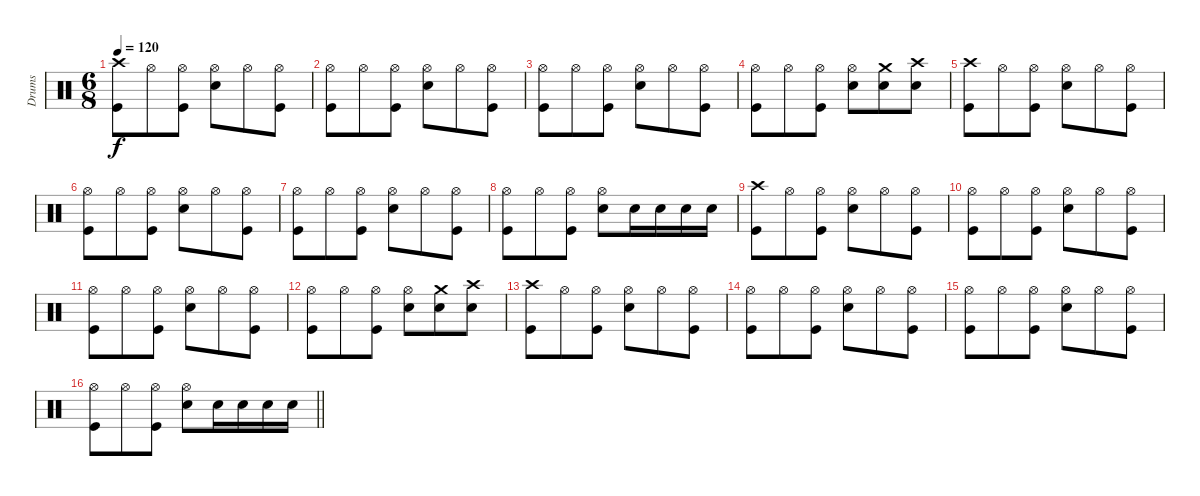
\track ("Drums" "Drums") {instrument percussion}
\staff {score}
\articulation defaults
\ts (6 8)
\tempo 120
\clef neutral
\ks c
("Crash high (hit)" "Kick (hit)").8{dy f} "Hi-Hat (open)".8 ("Hi-Hat (open)" "Kick (hit)").8 ("Hi-Hat (open)" "Electric Snare (hit)").8 "Hi-Hat (open)".8 ("Hi-Hat (open)" "Kick (hit)").8 |
("Hi-Hat (open)" "Kick (hit)").8 "Hi-Hat (open)".8 ("Hi-Hat (open)" "Kick (hit)").8 ("Hi-Hat (open)" "Electric Snare (hit)").8 "Hi-Hat (open)".8 ("Hi-Hat (open)" "Kick (hit)").8 |
("Hi-Hat (open)" "Kick (hit)").8 "Hi-Hat (open)".8 ("Hi-Hat (open)" "Kick (hit)").8 ("Hi-Hat (open)" "Electric Snare (hit)").8 "Hi-Hat (open)".8 ("Hi-Hat (open)" "Kick (hit)").8 |
("Hi-Hat (open)" "Kick (hit)").8 "Hi-Hat (open)".8 ("Hi-Hat (open)" "Kick (hit)").8 ("Hi-Hat (open)" "Electric Snare (hit)").8 ("Crash medium (hit)" "Electric Snare (hit)").8 ("Crash high (hit)" "Electric Snare (hit)").8 |
("Crash high (hit)" "Kick (hit)").8 "Hi-Hat (open)".8 ("Hi-Hat (open)" "Kick (hit)").8 ("Hi-Hat (open)" "Electric Snare (hit)").8 "Hi-Hat (open)".8 ("Hi-Hat (open)" "Kick (hit)").8 |
("Hi-Hat (open)" "Kick (hit)").8 "Hi-Hat (open)".8 ("Hi-Hat (open)" "Kick (hit)").8 ("Hi-Hat (open)" "Electric Snare (hit)").8 "Hi-Hat (open)".8 ("Hi-Hat (open)" "Kick (hit)").8 |
("Hi-Hat (open)" "Kick (hit)").8 "Hi-Hat (open)".8 ("Hi-Hat (open)" "Kick (hit)").8 ("Hi-Hat (open)" "Electric Snare (hit)").8 "Hi-Hat (open)".8 ("Hi-Hat (open)" "Kick (hit)").8 |
("Hi-Hat (open)" "Kick (hit)").8 "Hi-Hat (open)".8 ("Hi-Hat (open)" "Kick (hit)").8 ("Hi-Hat (open)" "Electric Snare (hit)").8 "Electric Snare (hit)".16 "Electric Snare (hit)".16 "Electric Snare (hit)".16 "Electric Snare (hit)".16 |
("Crash high (hit)" "Kick (hit)").8 "Hi-Hat (open)".8 ("Hi-Hat (open)" "Kick (hit)").8 ("Hi-Hat (open)" "Electric Snare (hit)").8 "Hi-Hat (open)".8 ("Hi-Hat (open)" "Kick (hit)").8 |
("Hi-Hat (open)" "Kick (hit)").8 "Hi-Hat (open)".8 ("Hi-Hat (open)" "Kick (hit)").8 ("Hi-Hat (open)" "Electric Snare (hit)").8 "Hi-Hat (open)".8 ("Hi-Hat (open)" "Kick (hit)").8 |
("Hi-Hat (open)" "Kick (hit)").8 "Hi-Hat (open)".8 ("Hi-Hat (open)" "Kick (hit)").8 ("Hi-Hat (open)" "Electric Snare (hit)").8 "Hi-Hat (open)".8 ("Hi-Hat (open)" "Kick (hit)").8 |
("Hi-Hat (open)" "Kick (hit)").8 "Hi-Hat (open)".8 ("Hi-Hat (open)" "Kick (hit)").8 ("Hi-Hat (open)" "Electric Snare (hit)").8 ("Crash medium (hit)" "Electric Snare (hit)").8 ("Crash high (hit)" "Electric Snare (hit)").8 |
("Crash high (hit)" "Kick (hit)").8 "Hi-Hat (open)".8 ("Hi-Hat (open)" "Kick (hit)").8 ("Hi-Hat (open)" "Electric Snare (hit)").8 "Hi-Hat (open)".8 ("Hi-Hat (open)" "Kick (hit)").8 |
("Hi-Hat (open)" "Kick (hit)").8 "Hi-Hat (open)".8 ("Hi-Hat (open)" "Kick (hit)").8 ("Hi-Hat (open)" "Electric Snare (hit)").8 "Hi-Hat (open)".8 ("Hi-Hat (open)" "Kick (hit)").8 |
("Hi-Hat (open)" "Kick (hit)").8 "Hi-Hat (open)".8 ("Hi-Hat (open)" "Kick (hit)").8 ("Hi-Hat (open)" "Electric Snare (hit)").8 "Hi-Hat (open)".8 ("Hi-Hat (open)" "Kick (hit)").8 |
\barLineRight lightlight
("Hi-Hat (open)" "Kick (hit)").8 "Hi-Hat (open)".8 ("Hi-Hat (open)" "Kick (hit)").8 ("Hi-Hat (open)" "Electric Snare (hit)").8 "Electric Snare (hit)".16 "Electric Snare (hit)".16 "Electric Snare (hit)".16 "Electric Snare (hit)".16
